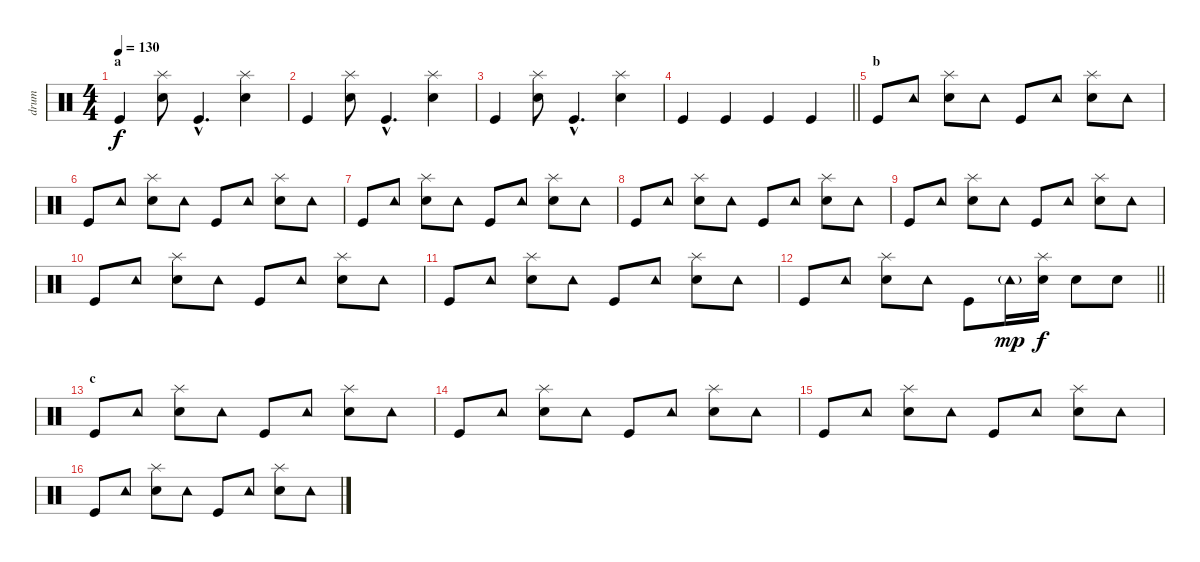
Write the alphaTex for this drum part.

\track ("drum" "drum") {instrument percussion}
\staff {score}
\articulation defaults
\ts (4 4)
\section ("" "a")
\tempo 130
\clef neutral
\ks c "Kick (hit)".4{dy f}
("Snare (hit) 2" "Splash (hit)").8 "Kick (hit)"{hac}.4{d} ("Snare (hit) 2" "Splash (hit)").4 |
"Kick (hit)".4 ("Snare (hit) 2" "Splash (hit)").8 "Kick (hit)"{hac}.4{d} ("Snare (hit) 2" "Splash (hit)").4 |
"Kick (hit)".4 ("Snare (hit) 2" "Splash (hit)").8 "Kick (hit)"{hac}.4{d} ("Snare (hit) 2" "Splash (hit)").4 |
\barLineRight lightlight "Kick (hit)".4 "Kick (hit)".4 "Kick (hit)".4 "Kick (hit)".4
|
\section ("" "b")
"Kick (hit)".8 "Tambourine (hit)".8 ("Snare (hit) 2" "Splash (hit)").8 "Tambourine (hit)".8 "Kick (hit)".8 "Tambourine (hit)".8 ("Snare (hit) 2" "Splash (hit)").8 "Tambourine (hit)".8 |
"Kick (hit)".8 "Tambourine (hit)".8 ("Snare (hit) 2" "Splash (hit)").8 "Tambourine (hit)".8 "Kick (hit)".8 "Tambourine (hit)".8 ("Snare (hit) 2" "Splash (hit)").8 "Tambourine (hit)".8 |
"Kick (hit)".8 "Tambourine (hit)".8 ("Snare (hit) 2" "Splash (hit)").8 "Tambourine (hit)".8 "Kick (hit)".8 "Tambourine (hit)".8 ("Snare (hit) 2" "Splash (hit)").8 "Tambourine (hit)".8 |
"Kick (hit)".8 "Tambourine (hit)".8 ("Snare (hit) 2" "Splash (hit)").8 "Tambourine (hit)".8 "Kick (hit)".8 "Tambourine (hit)".8 ("Snare (hit) 2" "Splash (hit)").8 "Tambourine (hit)".8 |
"Kick (hit)".8 "Tambourine (hit)".8 ("Snare (hit) 2" "Splash (hit)").8 "Tambourine (hit)".8 "Kick (hit)".8 "Tambourine (hit)".8 ("Snare (hit) 2" "Splash (hit)").8 "Tambourine (hit)".8 |
"Kick (hit)".8 "Tambourine (hit)".8 ("Snare (hit) 2" "Splash (hit)").8 "Tambourine (hit)".8 "Kick (hit)".8 "Tambourine (hit)".8 ("Snare (hit) 2" "Splash (hit)").8 "Tambourine (hit)".8 |
"Kick (hit)".8 "Tambourine (hit)".8 ("Snare (hit) 2" "Splash (hit)").8 "Tambourine (hit)".8 "Kick (hit)".8 "Tambourine (hit)".8 ("Snare (hit) 2" "Splash (hit)").8 "Tambourine (hit)".8 |
\barLineRight lightlight "Kick (hit)".8 "Tambourine (hit)".8
("Snare (hit) 2" "Splash (hit)").8 "Tambourine (hit)".8 "Kick (hit)".8 "Tambourine (hit)"{g}.16{dy mp} ("Snare (hit) 2" "Splash (hit)").16{dy f} "Snare (hit) 2".8 "Snare (hit) 2".8 |
\section ("" "c")
"Kick (hit)".8 "Tambourine (hit)".8 ("Snare (hit) 2" "Splash (hit)").8 "Tambourine (hit)".8 "Kick (hit)".8 "Tambourine (hit)".8 ("Snare (hit) 2" "Splash (hit)").8 "Tambourine (hit)".8 |
"Kick (hit)".8 "Tambourine (hit)".8 ("Snare (hit) 2" "Splash (hit)").8 "Tambourine (hit)".8 "Kick (hit)".8 "Tambourine (hit)".8 ("Snare (hit) 2" "Splash (hit)").8 "Tambourine (hit)".8 |
"Kick (hit)".8 "Tambourine (hit)".8 ("Snare (hit) 2" "Splash (hit)").8 "Tambourine (hit)".8 "Kick (hit)".8 "Tambourine (hit)".8 ("Snare (hit) 2" "Splash (hit)").8 "Tambourine (hit)".8 |
"Kick (hit)".8 "Tambourine (hit)".8 ("Snare (hit) 2" "Splash (hit)").8 "Tambourine (hit)".8 "Kick (hit)".8 "Tambourine (hit)".8 ("Snare (hit) 2" "Splash (hit)").8 "Tambourine (hit)".8
